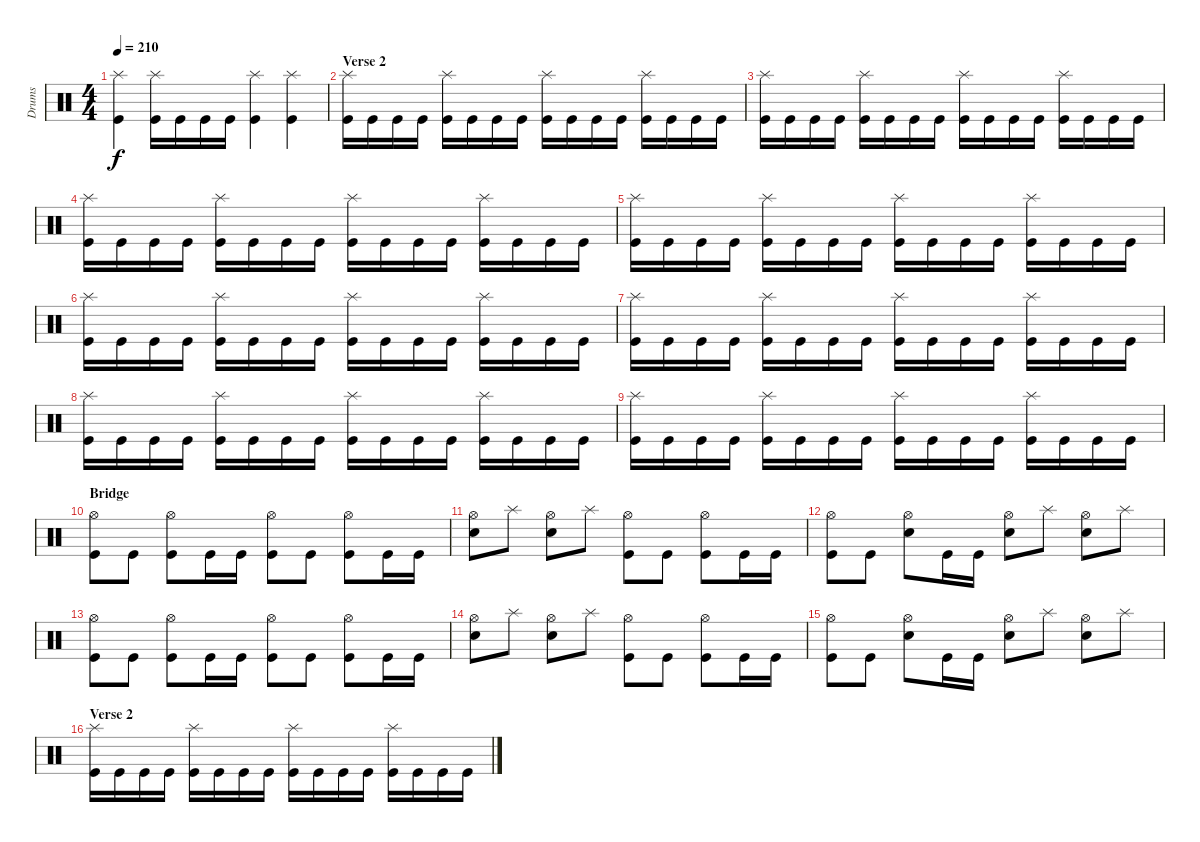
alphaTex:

\track ("Drums" "Drums") {instrument percussion}
\staff {score}
\articulation defaults
\ts (4 4)
\tempo 210
\clef neutral
\ks c
("Splash (hit)" "Kick (hit)").4{dy f} ("Splash (hit)" "Kick (hit)").16 "Kick (hit)".16 "Kick (hit)".16 "Kick (hit)".16 ("Splash (hit)" "Kick (hit)").4 ("Splash (hit)" "Kick (hit)").4 |
\section ("" "Verse 2")
("Splash (hit)" "Kick (hit)").16 "Kick (hit)".16 "Kick (hit)".16 "Kick (hit)".16 ("Splash (hit)" "Kick (hit)").16 "Kick (hit)".16 "Kick (hit)".16 "Kick (hit)".16 ("Splash (hit)" "Kick (hit)").16 "Kick (hit)".16 "Kick (hit)".16 "Kick (hit)".16 ("Splash (hit)" "Kick (hit)").16 "Kick (hit)".16 "Kick (hit)".16 "Kick (hit)".16 |
("Splash (hit)" "Kick (hit)").16 "Kick (hit)".16 "Kick (hit)".16 "Kick (hit)".16 ("Splash (hit)" "Kick (hit)").16 "Kick (hit)".16 "Kick (hit)".16 "Kick (hit)".16 ("Splash (hit)" "Kick (hit)").16 "Kick (hit)".16 "Kick (hit)".16 "Kick (hit)".16 ("Splash (hit)" "Kick (hit)").16 "Kick (hit)".16 "Kick (hit)".16 "Kick (hit)".16 |
("Splash (hit)" "Kick (hit)").16 "Kick (hit)".16 "Kick (hit)".16 "Kick (hit)".16 ("Splash (hit)" "Kick (hit)").16 "Kick (hit)".16 "Kick (hit)".16 "Kick (hit)".16 ("Splash (hit)" "Kick (hit)").16 "Kick (hit)".16 "Kick (hit)".16 "Kick (hit)".16 ("Splash (hit)" "Kick (hit)").16 "Kick (hit)".16 "Kick (hit)".16 "Kick (hit)".16 |
("Splash (hit)" "Kick (hit)").16 "Kick (hit)".16 "Kick (hit)".16 "Kick (hit)".16 ("Splash (hit)" "Kick (hit)").16 "Kick (hit)".16 "Kick (hit)".16 "Kick (hit)".16 ("Splash (hit)" "Kick (hit)").16 "Kick (hit)".16 "Kick (hit)".16 "Kick (hit)".16 ("Splash (hit)" "Kick (hit)").16 "Kick (hit)".16 "Kick (hit)".16 "Kick (hit)".16 |
("Splash (hit)" "Kick (hit)").16 "Kick (hit)".16 "Kick (hit)".16 "Kick (hit)".16 ("Splash (hit)" "Kick (hit)").16 "Kick (hit)".16 "Kick (hit)".16 "Kick (hit)".16 ("Splash (hit)" "Kick (hit)").16 "Kick (hit)".16 "Kick (hit)".16 "Kick (hit)".16 ("Splash (hit)" "Kick (hit)").16 "Kick (hit)".16 "Kick (hit)".16 "Kick (hit)".16 |
("Splash (hit)" "Kick (hit)").16 "Kick (hit)".16 "Kick (hit)".16 "Kick (hit)".16 ("Splash (hit)" "Kick (hit)").16 "Kick (hit)".16 "Kick (hit)".16 "Kick (hit)".16 ("Splash (hit)" "Kick (hit)").16 "Kick (hit)".16 "Kick (hit)".16 "Kick (hit)".16 ("Splash (hit)" "Kick (hit)").16 "Kick (hit)".16 "Kick (hit)".16 "Kick (hit)".16 |
("Splash (hit)" "Kick (hit)").16 "Kick (hit)".16 "Kick (hit)".16 "Kick (hit)".16 ("Splash (hit)" "Kick (hit)").16 "Kick (hit)".16 "Kick (hit)".16 "Kick (hit)".16 ("Splash (hit)" "Kick (hit)").16 "Kick (hit)".16 "Kick (hit)".16 "Kick (hit)".16 ("Splash (hit)" "Kick (hit)").16 "Kick (hit)".16 "Kick (hit)".16 "Kick (hit)".16 |
("Splash (hit)" "Kick (hit)").16 "Kick (hit)".16 "Kick (hit)".16 "Kick (hit)".16 ("Splash (hit)" "Kick (hit)").16 "Kick (hit)".16 "Kick (hit)".16 "Kick (hit)".16 ("Splash (hit)" "Kick (hit)").16 "Kick (hit)".16 "Kick (hit)".16 "Kick (hit)".16 ("Splash (hit)" "Kick (hit)").16 "Kick (hit)".16 "Kick (hit)".16 "Kick (hit)".16 |
\section ("" "Bridge")
("Hi-Hat (open)" "Kick (hit)").8 "Kick (hit)".8 ("Hi-Hat (open)" "Kick (hit)").8 "Kick (hit)".16 "Kick (hit)".16 ("Hi-Hat (open)" "Kick (hit)").8 "Kick (hit)".8 ("Hi-Hat (open)" "Kick (hit)").8 "Kick (hit)".16 "Kick (hit)".16 |
("Hi-Hat (open)" "Electric Snare (hit)").8 "Splash (hit)".8 ("Hi-Hat (open)" "Electric Snare (hit)").8 "Splash (hit)".8 ("Hi-Hat (open)" "Kick (hit)").8 "Kick (hit)".8 ("Hi-Hat (open)" "Kick (hit)").8 "Kick (hit)".16 "Kick (hit)".16 |
("Hi-Hat (open)" "Kick (hit)").8 "Kick (hit)".8 ("Hi-Hat (open)" "Electric Snare (hit)").8 "Kick (hit)".16 "Kick (hit)".16 ("Hi-Hat (open)" "Electric Snare (hit)").8 "Splash (hit)".8 ("Hi-Hat (open)" "Electric Snare (hit)").8 "Splash (hit)".8 |
("Hi-Hat (open)" "Kick (hit)").8 "Kick (hit)".8 ("Hi-Hat (open)" "Kick (hit)").8 "Kick (hit)".16 "Kick (hit)".16 ("Hi-Hat (open)" "Kick (hit)").8 "Kick (hit)".8 ("Hi-Hat (open)" "Kick (hit)").8 "Kick (hit)".16 "Kick (hit)".16 |
("Hi-Hat (open)" "Electric Snare (hit)").8 "Splash (hit)".8 ("Hi-Hat (open)" "Electric Snare (hit)").8 "Splash (hit)".8 ("Hi-Hat (open)" "Kick (hit)").8 "Kick (hit)".8 ("Hi-Hat (open)" "Kick (hit)").8 "Kick (hit)".16 "Kick (hit)".16 |
("Hi-Hat (open)" "Kick (hit)").8 "Kick (hit)".8 ("Hi-Hat (open)" "Electric Snare (hit)").8 "Kick (hit)".16 "Kick (hit)".16 ("Hi-Hat (open)" "Electric Snare (hit)").8 "Splash (hit)".8 ("Hi-Hat (open)" "Electric Snare (hit)").8 "Splash (hit)".8 |
\section ("" "Verse 2")
("Splash (hit)" "Kick (hit)").16 "Kick (hit)".16 "Kick (hit)".16 "Kick (hit)".16 ("Splash (hit)" "Kick (hit)").16 "Kick (hit)".16 "Kick (hit)".16 "Kick (hit)".16 ("Splash (hit)" "Kick (hit)").16 "Kick (hit)".16 "Kick (hit)".16 "Kick (hit)".16 ("Splash (hit)" "Kick (hit)").16 "Kick (hit)".16 "Kick (hit)".16 "Kick (hit)".16
